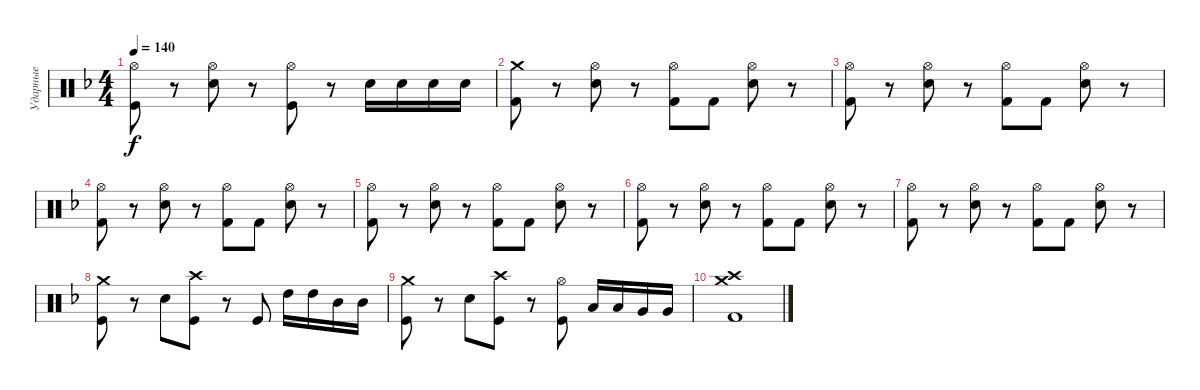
\track ("Ударные" "Ударные") {instrument percussion}
\staff {score}
\articulation defaults
\ts (4 4)
\tempo 140
\clef neutral
\ks dminor
("Hi-Hat (open)" "Kick (hit)").8{dy f} r.8 ("Hi-Hat (open)" "Electric Snare (hit)").8 r.8 ("Hi-Hat (open)" "Kick (hit)").8 r.8 "Electric Snare (hit)".16 "Electric Snare (hit)".16 "Electric Snare (hit)".16 "Electric Snare (hit)".16 |
\ks f
("Crash medium (hit)" "Kick (hit) 2").8 r.8 ("Hi-Hat (open)" "Electric Snare (hit)").8 r.8 ("Hi-Hat (open)" "Kick (hit) 2").8 "Kick (hit) 2".8 ("Hi-Hat (open)" "Electric Snare (hit)").8 r.8 |
("Hi-Hat (open)" "Kick (hit) 2").8 r.8 ("Hi-Hat (open)" "Electric Snare (hit)").8 r.8 ("Hi-Hat (open)" "Kick (hit) 2").8 "Kick (hit) 2".8 ("Hi-Hat (open)" "Electric Snare (hit)").8 r.8 |
("Hi-Hat (open)" "Kick (hit) 2").8 r.8 ("Hi-Hat (open)" "Electric Snare (hit)").8 r.8 ("Hi-Hat (open)" "Kick (hit) 2").8 "Kick (hit) 2".8 ("Hi-Hat (open)" "Electric Snare (hit)").8 r.8 |
("Hi-Hat (open)" "Kick (hit) 2").8 r.8 ("Hi-Hat (open)" "Electric Snare (hit)").8 r.8 ("Hi-Hat (open)" "Kick (hit) 2").8 "Kick (hit) 2".8 ("Hi-Hat (open)" "Electric Snare (hit)").8 r.8 |
("Hi-Hat (open)" "Kick (hit) 2").8 r.8 ("Hi-Hat (open)" "Electric Snare (hit)").8 r.8 ("Hi-Hat (open)" "Kick (hit) 2").8 "Kick (hit) 2".8 ("Hi-Hat (open)" "Electric Snare (hit)").8 r.8 |
("Hi-Hat (open)" "Kick (hit) 2").8 r.8 ("Hi-Hat (open)" "Electric Snare (hit)").8 r.8 ("Hi-Hat (open)" "Kick (hit) 2").8 "Kick (hit) 2".8 ("Hi-Hat (open)" "Electric Snare (hit)").8 r.8 |
("Crash medium (hit)" "Kick (hit)").8 r.8 "Electric Snare (hit)".8 ("Crash high (hit)" "Kick (hit)").8 r.8 "Kick (hit)".8 "High Tom (hit)".16 "High Tom (hit)".16 "Mid Tom (hit)".16 "Mid Tom (hit)".16 |
("Crash medium (hit)" "Kick (hit)").8 r.8 "Electric Snare (hit)".8 ("Crash high (hit)" "Kick (hit)").8 r.8 ("Hi-Hat (open)" "Kick (hit)").8 "Low Tom (hit)".16 "Low Tom (hit)".16 "Very Low Tom (hit)".16 "Very Low Tom (hit)".16 |
("Crash medium (hit)" "Kick (hit) 2" "Crash high (hit)").1
